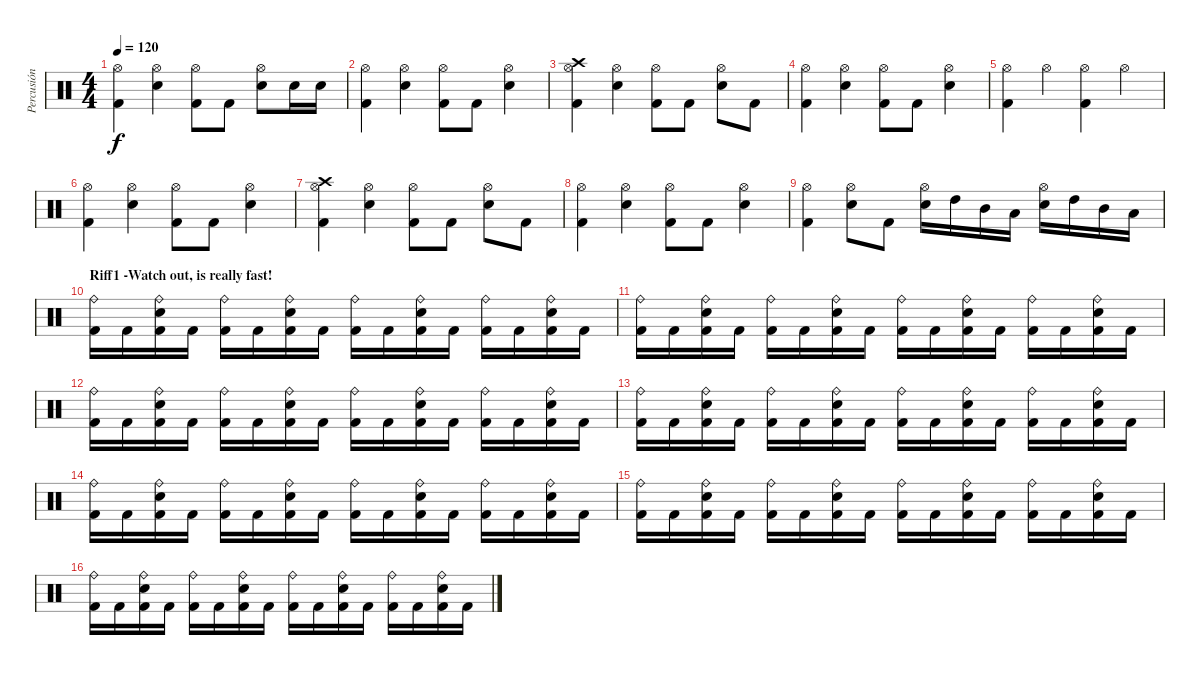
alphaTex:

\track ("Percusión" "Percusión") {instrument percussion}
\staff {score}
\articulation defaults
\ts (4 4)
\tempo 120
\clef neutral
\ks c
("Hi-Hat (open)" "Kick (hit) 2").4{dy f} ("Hi-Hat (open)" "Electric Snare (hit)").4 ("Hi-Hat (open)" "Kick (hit) 2").8 "Kick (hit) 2".8 ("Hi-Hat (open)" "Electric Snare (hit)").8 "Electric Snare (hit)".16 "Electric Snare (hit)".16 |
("Hi-Hat (open)" "Kick (hit) 2").4 ("Hi-Hat (open)" "Electric Snare (hit)").4 ("Hi-Hat (open)" "Kick (hit) 2").8 "Kick (hit) 2".8 ("Hi-Hat (open)" "Electric Snare (hit)").4 |
("Crash high (hit)" "Hi-Hat (open)" "Kick (hit) 2").4 ("Hi-Hat (open)" "Electric Snare (hit)").4 ("Hi-Hat (open)" "Kick (hit) 2").8 "Kick (hit) 2".8 ("Hi-Hat (open)" "Electric Snare (hit)").8 "Kick (hit) 2".8 |
("Hi-Hat (open)" "Kick (hit) 2").4 ("Hi-Hat (open)" "Electric Snare (hit)").4 ("Hi-Hat (open)" "Kick (hit) 2").8 "Kick (hit) 2".8 ("Hi-Hat (open)" "Electric Snare (hit)").4 |
("Hi-Hat (open)" "Kick (hit) 2").4 "Hi-Hat (open)".4 ("Hi-Hat (open)" "Kick (hit) 2").4 "Hi-Hat (open)".4 |
("Hi-Hat (open)" "Kick (hit) 2").4 ("Hi-Hat (open)" "Electric Snare (hit)").4 ("Hi-Hat (open)" "Kick (hit) 2").8 "Kick (hit) 2".8 ("Hi-Hat (open)" "Electric Snare (hit)").4 |
("Crash high (hit)" "Hi-Hat (open)" "Kick (hit) 2").4 ("Hi-Hat (open)" "Electric Snare (hit)").4 ("Hi-Hat (open)" "Kick (hit) 2").8 "Kick (hit) 2".8 ("Hi-Hat (open)" "Electric Snare (hit)").8 "Kick (hit) 2".8 |
("Hi-Hat (open)" "Kick (hit) 2").4 ("Hi-Hat (open)" "Electric Snare (hit)").4 ("Hi-Hat (open)" "Kick (hit) 2").8 "Kick (hit) 2".8 ("Hi-Hat (open)" "Electric Snare (hit)").4 |
("Hi-Hat (open)" "Kick (hit) 2").4 ("Hi-Hat (open)" "Electric Snare (hit)").8 "Kick (hit) 2".8 ("Hi-Hat (open)" "Electric Snare (hit)").16 "High Tom (hit)".16 "Mid Tom (hit)".16 "Low Tom (hit)".16 ("Hi-Hat (open)" "Electric Snare (hit)").16 "High Tom (hit)".16 "Mid Tom (hit)".16 "Low Tom (hit)".16 |
\section ("" "Riff1 -Watch out, is really fast!")
("Ride (bell)" "Kick (hit) 2").16 "Kick (hit) 2".16 ("Ride (bell)" "Electric Snare (hit)" "Kick (hit) 2").16 "Kick (hit) 2".16 ("Ride (bell)" "Kick (hit) 2").16 "Kick (hit) 2".16 ("Ride (bell)" "Electric Snare (hit)" "Kick (hit) 2").16 "Kick (hit) 2".16 ("Ride (bell)" "Kick (hit) 2").16 "Kick (hit) 2".16 ("Ride (bell)" "Electric Snare (hit)" "Kick (hit) 2").16 "Kick (hit) 2".16 ("Ride (bell)" "Kick (hit) 2").16 "Kick (hit) 2".16 ("Ride (bell)" "Electric Snare (hit)" "Kick (hit) 2").16 "Kick (hit) 2".16 |
("Ride (bell)" "Kick (hit) 2").16 "Kick (hit) 2".16 ("Ride (bell)" "Electric Snare (hit)" "Kick (hit) 2").16 "Kick (hit) 2".16 ("Ride (bell)" "Kick (hit) 2").16 "Kick (hit) 2".16 ("Ride (bell)" "Electric Snare (hit)" "Kick (hit) 2").16 "Kick (hit) 2".16 ("Ride (bell)" "Kick (hit) 2").16 "Kick (hit) 2".16 ("Ride (bell)" "Electric Snare (hit)" "Kick (hit) 2").16 "Kick (hit) 2".16 ("Ride (bell)" "Kick (hit) 2").16 "Kick (hit) 2".16 ("Ride (bell)" "Electric Snare (hit)" "Kick (hit) 2").16 "Kick (hit) 2".16 |
("Ride (bell)" "Kick (hit) 2").16 "Kick (hit) 2".16 ("Ride (bell)" "Electric Snare (hit)" "Kick (hit) 2").16 "Kick (hit) 2".16 ("Ride (bell)" "Kick (hit) 2").16 "Kick (hit) 2".16 ("Ride (bell)" "Electric Snare (hit)" "Kick (hit) 2").16 "Kick (hit) 2".16 ("Ride (bell)" "Kick (hit) 2").16 "Kick (hit) 2".16 ("Ride (bell)" "Electric Snare (hit)" "Kick (hit) 2").16 "Kick (hit) 2".16 ("Ride (bell)" "Kick (hit) 2").16 "Kick (hit) 2".16 ("Ride (bell)" "Electric Snare (hit)" "Kick (hit) 2").16 "Kick (hit) 2".16 |
("Ride (bell)" "Kick (hit) 2").16 "Kick (hit) 2".16 ("Ride (bell)" "Electric Snare (hit)" "Kick (hit) 2").16 "Kick (hit) 2".16 ("Ride (bell)" "Kick (hit) 2").16 "Kick (hit) 2".16 ("Ride (bell)" "Electric Snare (hit)" "Kick (hit) 2").16 "Kick (hit) 2".16 ("Ride (bell)" "Kick (hit) 2").16 "Kick (hit) 2".16 ("Ride (bell)" "Electric Snare (hit)" "Kick (hit) 2").16 "Kick (hit) 2".16 ("Ride (bell)" "Kick (hit) 2").16 "Kick (hit) 2".16 ("Ride (bell)" "Electric Snare (hit)" "Kick (hit) 2").16 "Kick (hit) 2".16 |
("Ride (bell)" "Kick (hit) 2").16 "Kick (hit) 2".16 ("Ride (bell)" "Electric Snare (hit)" "Kick (hit) 2").16 "Kick (hit) 2".16 ("Ride (bell)" "Kick (hit) 2").16 "Kick (hit) 2".16 ("Ride (bell)" "Electric Snare (hit)" "Kick (hit) 2").16 "Kick (hit) 2".16 ("Ride (bell)" "Kick (hit) 2").16 "Kick (hit) 2".16 ("Ride (bell)" "Electric Snare (hit)" "Kick (hit) 2").16 "Kick (hit) 2".16 ("Ride (bell)" "Kick (hit) 2").16 "Kick (hit) 2".16 ("Ride (bell)" "Electric Snare (hit)" "Kick (hit) 2").16 "Kick (hit) 2".16 |
("Ride (bell)" "Kick (hit) 2").16 "Kick (hit) 2".16 ("Ride (bell)" "Electric Snare (hit)" "Kick (hit) 2").16 "Kick (hit) 2".16 ("Ride (bell)" "Kick (hit) 2").16 "Kick (hit) 2".16 ("Ride (bell)" "Electric Snare (hit)" "Kick (hit) 2").16 "Kick (hit) 2".16 ("Ride (bell)" "Kick (hit) 2").16 "Kick (hit) 2".16 ("Ride (bell)" "Electric Snare (hit)" "Kick (hit) 2").16 "Kick (hit) 2".16 ("Ride (bell)" "Kick (hit) 2").16 "Kick (hit) 2".16 ("Ride (bell)" "Electric Snare (hit)" "Kick (hit) 2").16 "Kick (hit) 2".16 |
("Ride (bell)" "Kick (hit) 2").16 "Kick (hit) 2".16 ("Ride (bell)" "Electric Snare (hit)" "Kick (hit) 2").16 "Kick (hit) 2".16 ("Ride (bell)" "Kick (hit) 2").16 "Kick (hit) 2".16 ("Ride (bell)" "Electric Snare (hit)" "Kick (hit) 2").16 "Kick (hit) 2".16 ("Ride (bell)" "Kick (hit) 2").16 "Kick (hit) 2".16 ("Ride (bell)" "Electric Snare (hit)" "Kick (hit) 2").16 "Kick (hit) 2".16 ("Ride (bell)" "Kick (hit) 2").16 "Kick (hit) 2".16 ("Ride (bell)" "Electric Snare (hit)" "Kick (hit) 2").16 "Kick (hit) 2".16
